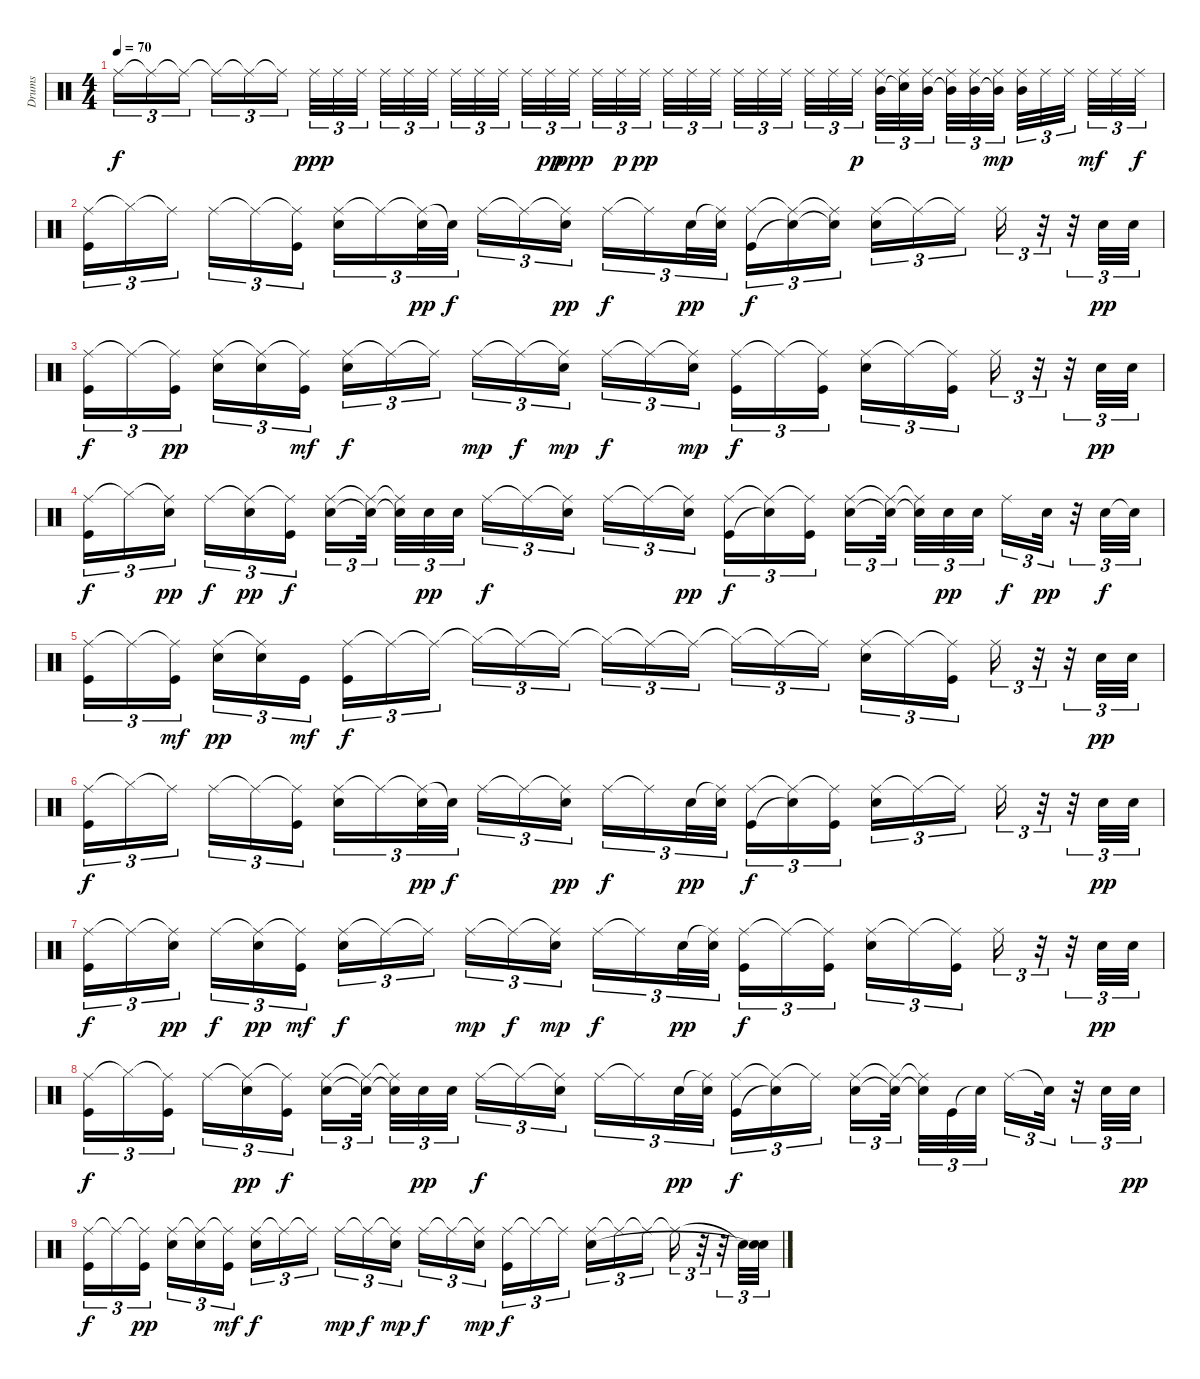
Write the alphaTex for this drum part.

\track ("Drums" "Drums") {instrument percussion}
\staff {score}
\articulation defaults
\ts (4 4)
\tempo 70
\clef neutral
\ks c "Ride (middle)".16{tu (3 2) dy f} "Ride (middle)"{t}.16{tu (3 2)} "Ride (middle)"{t}.16{tu (3 2)} "Ride (middle)"{t}.16{tu (3 2)} "Ride (middle)"{t}.16{tu (3 2)} "Ride (middle)"{t}.16{tu (3 2)} "Ride (middle)".32{tu (3 2) dy ppp} "Ride (middle)".32{tu (3 2)} "Ride (middle)".32{tu (3 2)} "Ride (middle)".32{tu (3 2)} "Ride (middle)".32{tu (3 2)} "Ride (middle)".32{tu (3 2)} "Ride (middle)".32{tu (3 2)} "Ride (middle)".32{tu (3 2)} "Ride (middle)".32{tu (3 2)} "Ride (middle)".32{tu (3 2)} "Ride (middle)".32{tu (3 2) dy pp} "Ride (middle)".32{tu (3 2) dy ppp} "Ride (middle)".32{tu (3 2)} "Ride (middle)".32{tu (3 2) dy p} "Ride (middle)".32{tu (3 2) dy pp} "Ride (middle)".32{tu (3 2)} "Ride (middle)".32{tu (3 2)} "Ride (middle)".32{tu (3 2)} "Ride (middle)".32{tu (3 2)} "Ride (middle)".32{tu (3 2)} "Ride (middle)".32{tu (3 2)} "Ride (middle)".32{tu (3 2)} "Ride (middle)".32{tu (3 2)} "Ride (middle)".32{tu (3 2) dy p}
("Mid Tom (hit)" "Ride (middle)").32{tu (3 2)} ("Snare (hit)"{t} "Ride (middle)").32{tu (3 2)} ("Mid Tom (hit)" "Ride (middle)").32{tu (3 2)} ("Mid Tom (hit)"{t} "Ride (middle)").32{tu (3 2)} ("Mid Tom (hit)" "Ride (middle)").32{tu (3 2)} ("Mid Tom (hit)"{t} "Ride (middle)").32{tu (3 2) dy mp} ("Mid Tom (hit)" "Ride (middle)").32{tu (3 2)} "Ride (middle)".32{tu (3 2)} "Ride (middle)".32{tu (3 2)} "Ride (middle)".32{tu (3 2) dy mf} "Ride (middle)".32{tu (3 2)} "Ride (middle)".32{tu (3 2) dy f} |
("Ride (middle)" "Kick (hit)").16{tu (3 2)} "Hi-Hat (closed)"{t}.16{tu (3 2)} "Ride (middle)"{t}.16{tu (3 2)} "Ride (middle)".16{tu (3 2)} "Ride (middle)"{t}.16{tu (3 2)} ("Ride (middle)"{t} "Kick (hit)").16{tu (3 2)} ("Ride (middle)" "Electric Snare (hit)").16{tu (3 2)} "Ride (middle)"{t}.16{tu (3 2)} ("Ride (middle)"{t} "Electric Snare (hit)").32{tu (3 2) dy pp} "Electric Snare (hit)"{t}.32{tu (3 2) dy f} "Ride (middle)".16{tu (3 2)} "Ride (middle)"{t}.16{tu (3 2)} ("Ride (middle)"{t} "Electric Snare (hit)").16{tu (3 2) dy pp} "Ride (middle)".16{tu (3 2) dy f} "Ride (middle)"{t}.16{tu (3 2)} "Electric Snare (hit)".32{tu (3 2) dy pp} ("Ride (middle)"{t} "Electric Snare (hit)").32{tu (3 2)} ("Ride (middle)" "Kick (hit)").16{tu (3 2) dy f} ("Ride (middle)"{t} "Electric Snare (hit)"{t}).16{tu (3 2)} ("Ride (middle)"{t} "Electric Snare (hit)"{t}).16{tu (3 2)} ("Ride (middle)" "Electric Snare (hit)").16{tu (3 2)} "Ride (middle)"{t}.16{tu (3 2)} "Ride (middle)"{t}.16{tu (3 2)} "Ride (middle)".16{tu (3 2)} r.32{tu (3 2)} r.32{tu (3 2)} "Electric Snare (hit)".32{tu (3 2) dy pp} "Electric Snare (hit)".32{tu (3 2)} |
("Ride (middle)" "Kick (hit)").16{tu (3 2) dy f} "Ride (middle)"{t}.16{tu (3 2)} ("Ride (middle)"{t} "Kick (hit)").16{tu (3 2) dy pp} ("Ride (middle)" "Electric Snare (hit)").16{tu (3 2)} ("Ride (middle)"{t} "Electric Snare (hit)").16{tu (3 2)} ("Ride (middle)"{t} "Kick (hit)").16{tu (3 2) dy mf} ("Ride (middle)" "Electric Snare (hit)").16{tu (3 2) dy f} "Ride (middle)"{t}.16{tu (3 2)} "Ride (middle)"{t}.16{tu (3 2)} "Ride (middle)".16{tu (3 2) dy mp} "Ride (middle)"{t}.16{tu (3 2) dy f} ("Ride (middle)"{t} "Electric Snare (hit)").16{tu (3 2) dy mp} "Ride (middle)".16{tu (3 2) dy f} "Ride (middle)"{t}.16{tu (3 2)} ("Ride (middle)"{t} "Electric Snare (hit)").16{tu (3 2) dy mp} ("Ride (middle)" "Kick (hit)").16{tu (3 2) dy f} "Ride (middle)"{t}.16{tu (3 2)} ("Ride (middle)"{t} "Kick (hit)").16{tu (3 2)} ("Ride (middle)" "Electric Snare (hit)").16{tu (3 2)} "Ride (middle)"{t}.16{tu (3 2)} ("Ride (middle)"{t} "Kick (hit)").16{tu (3 2)} "Ride (middle)".16{tu (3 2)} r.32{tu (3 2)} r.32{tu (3 2)} "Electric Snare (hit)".32{tu (3 2) dy pp} "Electric Snare (hit)".32{tu (3 2)} |
("Ride (middle)" "Kick (hit)").16{tu (3 2) dy f} "Hi-Hat (closed)"{t}.16{tu (3 2)} ("Ride (middle)"{t} "Electric Snare (hit)").16{tu (3 2) dy pp} "Ride (middle)".16{tu (3 2) dy f} ("Ride (middle)"{t} "Electric Snare (hit)").16{tu (3 2) dy pp} ("Ride (middle)"{t} "Kick (hit)").16{tu (3 2) dy f} ("Ride (middle)" "Electric Snare (hit)").16{tu (3 2)} ("Ride (middle)"{t} "Electric Snare (hit)"{t}).32{tu (3 2)} ("Ride (middle)"{t} "Electric Snare (hit)"{t}).32{tu (3 2)} "Electric Snare (hit)".32{tu (3 2) dy pp} "Electric Snare (hit)".32{tu (3 2)} "Ride (middle)".16{tu (3 2) dy f} "Ride (middle)"{t}.16{tu (3 2)} ("Ride (middle)"{t} "Electric Snare (hit)").16{tu (3 2)} "Ride (middle)".16{tu (3 2)} "Ride (middle)"{t}.16{tu (3 2)} ("Ride (middle)"{t} "Electric Snare (hit)").16{tu (3 2) dy pp} ("Ride (middle)" "Kick (hit)").16{tu (3 2) dy f} ("Ride (middle)"{t} "Electric Snare (hit)"{t}).16{tu (3 2)} ("Ride (middle)"{t} "Kick (hit)").16{tu (3 2)} ("Ride (middle)" "Electric Snare (hit)").16{tu (3 2)} ("Ride (middle)"{t} "Electric Snare (hit)"{t}).32{tu (3 2)} ("Ride (middle)"{t} "Electric Snare (hit)"{t}).32{tu (3 2)} "Electric Snare (hit)".32{tu (3 2) dy pp} "Electric Snare (hit)".32{tu (3 2)} "Ride (middle)".16{tu (3 2) dy f} "Electric Snare (hit)".32{tu (3 2) dy pp} r.32{tu (3 2)} "Electric Snare (hit)".32{tu (3 2) dy f} "Electric Snare (hit)"{t}.32{tu (3 2)} |
("Ride (middle)" "Kick (hit)").16{tu (3 2)} "Ride (middle)"{t}.16{tu (3 2)} ("Ride (middle)"{t} "Kick (hit)").16{tu (3 2) dy mf} ("Ride (middle)" "Electric Snare (hit)").16{tu (3 2) dy pp} ("Ride (middle)"{t} "Electric Snare (hit)").16{tu (3 2)} "Kick (hit)".16{tu (3 2) dy mf} ("Ride (middle)" "Kick (hit)").16{tu (3 2) dy f} "Ride (middle)"{t}.16{tu (3 2)} "Ride (middle)"{t}.16{tu (3 2)} "Hi-Hat (closed)"{t}.16{tu (3 2)} "Ride (middle)"{t}.16{tu (3 2)} "Ride (middle)"{t}.16{tu (3 2)} "Hi-Hat (closed)"{t}.16{tu (3 2)} "Ride (middle)"{t}.16{tu (3 2)} "Ride (middle)"{t}.16{tu (3 2)} "Hi-Hat (closed)"{t}.16{tu (3 2)} "Ride (middle)"{t}.16{tu (3 2)} "Ride (middle)"{t}.16{tu (3 2)} ("Ride (middle)" "Electric Snare (hit)").16{tu (3 2)} "Ride (middle)"{t}.16{tu (3 2)} ("Ride (middle)"{t} "Kick (hit)").16{tu (3 2)} "Ride (middle)".16{tu (3 2)} r.32{tu (3 2)} r.32{tu (3 2)} "Electric Snare (hit)".32{tu (3 2) dy pp} "Electric Snare (hit)".32{tu (3 2)} |
("Ride (middle)" "Kick (hit)").16{tu (3 2) dy f} "Hi-Hat (closed)"{t}.16{tu (3 2)} "Ride (middle)"{t}.16{tu (3 2)} "Ride (middle)".16{tu (3 2)} "Ride (middle)"{t}.16{tu (3 2)} ("Ride (middle)"{t} "Kick (hit)").16{tu (3 2)} ("Ride (middle)" "Electric Snare (hit)").16{tu (3 2)} "Ride (middle)"{t}.16{tu (3 2)} ("Ride (middle)"{t} "Electric Snare (hit)").32{tu (3 2) dy pp} "Electric Snare (hit)"{t}.32{tu (3 2) dy f} "Ride (middle)".16{tu (3 2)} "Ride (middle)"{t}.16{tu (3 2)} ("Ride (middle)"{t} "Electric Snare (hit)").16{tu (3 2) dy pp} "Ride (middle)".16{tu (3 2) dy f} "Ride (middle)"{t}.16{tu (3 2)} "Electric Snare (hit)".32{tu (3 2) dy pp} ("Ride (middle)"{t} "Electric Snare (hit)").32{tu (3 2)} ("Ride (middle)" "Kick (hit)").16{tu (3 2) dy f} ("Ride (middle)"{t} "Electric Snare (hit)"{t}).16{tu (3 2)} ("Ride (middle)"{t} "Kick (hit)").16{tu (3 2)} ("Ride (middle)" "Electric Snare (hit)").16{tu (3 2)} "Ride (middle)"{t}.16{tu (3 2)} "Ride (middle)"{t}.16{tu (3 2)} "Ride (middle)".16{tu (3 2)} r.32{tu (3 2)} r.32{tu (3 2)} "Electric Snare (hit)".32{tu (3 2) dy pp} "Electric Snare (hit)".32{tu (3 2)} |
("Ride (middle)" "Kick (hit)").16{tu (3 2) dy f} "Ride (middle)"{t}.16{tu (3 2)} ("Ride (middle)"{t} "Electric Snare (hit)").16{tu (3 2) dy pp} "Ride (middle)".16{tu (3 2) dy f} ("Ride (middle)"{t} "Electric Snare (hit)").16{tu (3 2) dy pp} ("Ride (middle)"{t} "Kick (hit)").16{tu (3 2) dy mf} ("Ride (middle)" "Electric Snare (hit)").16{tu (3 2) dy f} "Ride (middle)"{t}.16{tu (3 2)} "Ride (middle)"{t}.16{tu (3 2)} "Ride (middle)".16{tu (3 2) dy mp} "Ride (middle)"{t}.16{tu (3 2) dy f} ("Ride (middle)"{t} "Electric Snare (hit)").16{tu (3 2) dy mp} "Ride (middle)".16{tu (3 2) dy f} "Ride (middle)"{t}.16{tu (3 2)} "Electric Snare (hit)".32{tu (3 2) dy pp} ("Ride (middle)"{t} "Electric Snare (hit)").32{tu (3 2)} ("Ride (middle)" "Kick (hit)").16{tu (3 2) dy f} "Ride (middle)"{t}.16{tu (3 2)} ("Ride (middle)"{t} "Kick (hit)").16{tu (3 2)} ("Ride (middle)" "Electric Snare (hit)").16{tu (3 2)} "Ride (middle)"{t}.16{tu (3 2)} ("Ride (middle)"{t} "Kick (hit)").16{tu (3 2)} "Ride (middle)".16{tu (3 2)} r.32{tu (3 2)} r.32{tu (3 2)} "Electric Snare (hit)".32{tu (3 2) dy pp} "Electric Snare (hit)".32{tu (3 2)} |
("Ride (middle)" "Kick (hit)").16{tu (3 2) dy f} "Hi-Hat (closed)"{t}.16{tu (3 2)} ("Ride (middle)"{t} "Kick (hit)").16{tu (3 2)} "Ride (middle)".16{tu (3 2)} ("Ride (middle)"{t} "Electric Snare (hit)").16{tu (3 2) dy pp} ("Ride (middle)"{t} "Kick (hit)").16{tu (3 2) dy f} ("Ride (middle)" "Electric Snare (hit)").16{tu (3 2)} ("Ride (middle)"{t} "Electric Snare (hit)"{t}).32{tu (3 2)} ("Ride (middle)"{t} "Electric Snare (hit)"{t}).32{tu (3 2)} "Electric Snare (hit)".32{tu (3 2) dy pp} "Electric Snare (hit)".32{tu (3 2)} "Ride (middle)".16{tu (3 2) dy f} "Ride (middle)"{t}.16{tu (3 2)} ("Ride (middle)"{t} "Electric Snare (hit)").16{tu (3 2)} "Ride (middle)".16{tu (3 2)} "Ride (middle)"{t}.16{tu (3 2)} "Electric Snare (hit)".32{tu (3 2) dy pp} ("Ride (middle)"{t} "Electric Snare (hit)").32{tu (3 2)} ("Ride (middle)" "Kick (hit)").16{tu (3 2) dy f} ("Ride (middle)"{t} "Electric Snare (hit)"{t}).16{tu (3 2)} "Ride (middle)"{t}.16{tu (3 2)} ("Ride (middle)" "Electric Snare (hit)").16{tu (3 2)} ("Ride (middle)"{t} "Electric Snare (hit)"{t}).32{tu (3 2)} ("Ride (middle)"{t} "Electric Snare (hit)"{t}).32{tu (3 2)} "Kick (hit)".32{tu (3 2)} "Electric Snare (hit)"{t}.32{tu (3 2)} "Ride (middle)".16{tu (3 2)} "Electric Snare (hit)"{t}.32{tu (3 2)} r.32{tu (3 2)} "Electric Snare (hit)".32{tu (3 2)} "Electric Snare (hit)".32{tu (3 2) dy pp} |
("Ride (middle)" "Kick (hit)").16{tu (3 2) dy f} "Ride (middle)"{t}.16{tu (3 2)} ("Ride (middle)"{t} "Kick (hit)").16{tu (3 2) dy pp} ("Ride (middle)" "Electric Snare (hit)").16{tu (3 2)} ("Ride (middle)"{t} "Electric Snare (hit)").16{tu (3 2)} ("Ride (middle)"{t} "Kick (hit)").16{tu (3 2) dy mf} ("Ride (middle)" "Electric Snare (hit)").16{tu (3 2) dy f} "Ride (middle)"{t}.16{tu (3 2)} "Ride (middle)"{t}.16{tu (3 2)} "Ride (middle)".16{tu (3 2) dy mp} "Ride (middle)"{t}.16{tu (3 2) dy f} ("Ride (middle)"{t} "Electric Snare (hit)").16{tu (3 2) dy mp} "Ride (middle)".16{tu (3 2) dy f} "Ride (middle)"{t}.16{tu (3 2)} ("Ride (middle)"{t} "Electric Snare (hit)").16{tu (3 2) dy mp} ("Ride (middle)" "Kick (hit)").16{tu (3 2) dy f} "Ride (middle)"{t}.16{tu (3 2)} "Ride (middle)"{t}.16{tu (3 2)} ("Ride (middle)" "Electric Snare (hit)").16{tu (3 2)} "Ride (middle)"{t}.16{tu (3 2)} "Ride (middle)"{t}.16{tu (3 2)} "Ride (middle)"{t}.16{tu (3 2)} r.32{tu (3 2)} r.32{tu (3 2)} "Snare (hit)"{t}.32{tu (3 2)} ("Snare (hit)"{t} "Electric Snare (hit)"{t}).32{tu (3 2)}
